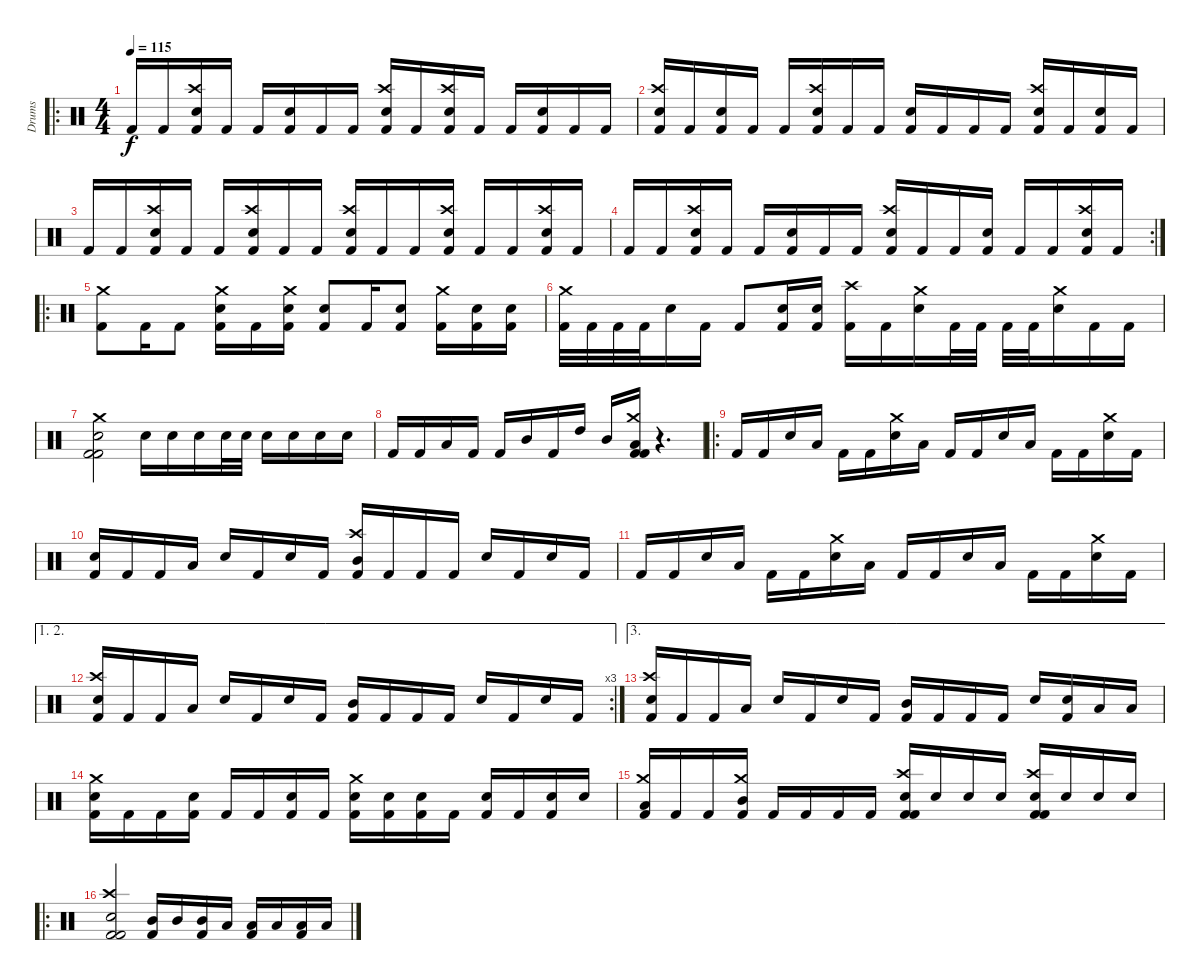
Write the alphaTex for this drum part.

\track ("Drums" "Drums") {instrument percussion}
\staff {score}
\articulation defaults
\ro
\ts (4 4)
\tempo 115
\clef neutral
\ks c "Kick (hit) 2".16{dy f} "Kick (hit) 2".16
("Crash high (hit)" "Electric Snare (hit)" "Kick (hit) 2").16 "Kick (hit) 2".16 "Kick (hit) 2".16 ("Electric Snare (hit)" "Kick (hit) 2").16 "Kick (hit) 2".16 "Kick (hit) 2".16 ("Crash high (hit)" "Electric Snare (hit)" "Kick (hit) 2").16 "Kick (hit) 2".16 ("Crash high (hit)" "Electric Snare (hit)" "Kick (hit) 2").16 "Kick (hit) 2".16 "Kick (hit) 2".16 ("Electric Snare (hit)" "Kick (hit) 2").16 "Kick (hit) 2".16 "Kick (hit) 2".16 |
("Crash high (hit)" "Electric Snare (hit)" "Kick (hit) 2").16 "Kick (hit) 2".16 ("Electric Snare (hit)" "Kick (hit) 2").16 "Kick (hit) 2".16 "Kick (hit) 2".16 ("Crash high (hit)" "Electric Snare (hit)" "Kick (hit) 2").16 "Kick (hit) 2".16 "Kick (hit) 2".16 ("Electric Snare (hit)" "Kick (hit) 2").16 "Kick (hit) 2".16 "Kick (hit) 2".16 "Kick (hit) 2".16 ("Crash high (hit)" "Electric Snare (hit)" "Kick (hit) 2").16 "Kick (hit) 2".16 ("Electric Snare (hit)" "Kick (hit) 2").16 "Kick (hit) 2".16 |
"Kick (hit) 2".16 "Kick (hit) 2".16 ("Crash high (hit)" "Electric Snare (hit)" "Kick (hit) 2").16 "Kick (hit) 2".16 "Kick (hit) 2".16 ("Crash high (hit)" "Electric Snare (hit)" "Kick (hit) 2").16 "Kick (hit) 2".16 "Kick (hit) 2".16 ("Crash high (hit)" "Electric Snare (hit)" "Kick (hit) 2").16 "Kick (hit) 2".16 "Kick (hit) 2".16 ("Crash high (hit)" "Electric Snare (hit)" "Kick (hit) 2").16 "Kick (hit) 2".16 "Kick (hit) 2".16 ("Crash high (hit)" "Electric Snare (hit)" "Kick (hit) 2").16 "Kick (hit) 2".16 |
\rc 2 "Kick (hit) 2".16 "Kick (hit) 2".16
("Crash high (hit)" "Electric Snare (hit)" "Kick (hit) 2").16 "Kick (hit) 2".16 "Kick (hit) 2".16 ("Electric Snare (hit)" "Kick (hit) 2").16 "Kick (hit) 2".16 "Kick (hit) 2".16 ("Crash high (hit)" "Electric Snare (hit)" "Kick (hit) 2").16 "Kick (hit) 2".16 "Kick (hit) 2".16 ("Electric Snare (hit)" "Kick (hit) 2").16 "Kick (hit) 2".16 "Kick (hit) 2".16 ("Crash high (hit)" "Electric Snare (hit)" "Kick (hit) 2").16 "Kick (hit) 2".16 |
\ro
("Crash medium (hit)" "Kick (hit) 2").8 "Kick (hit) 2".16 "Kick (hit) 2".8 ("Crash medium (hit)" "Electric Snare (hit)" "Kick (hit) 2").16 "Kick (hit) 2".16 ("Crash medium (hit)" "Electric Snare (hit)" "Kick (hit) 2").16 ("Electric Snare (hit)" "Kick (hit) 2").8 "Kick (hit) 2".16 ("Electric Snare (hit)" "Kick (hit) 2").8 ("Crash medium (hit)" "Kick (hit) 2").16 ("Electric Snare (hit)" "Kick (hit) 2").16 ("Electric Snare (hit)" "Kick (hit) 2").16 |
("Crash medium (hit)" "Kick (hit) 2").32 "Kick (hit) 2".32 "Kick (hit) 2".32 "Kick (hit) 2".32 "Electric Snare (hit)".16 "Kick (hit) 2".16 "Kick (hit) 2".8 ("Electric Snare (hit)" "Kick (hit) 2").16 ("Electric Snare (hit)" "Kick (hit) 2").16 ("Crash high (hit)" "Kick (hit) 2").16 "Kick (hit) 2".16 ("Crash medium (hit)" "Electric Snare (hit)").16 "Kick (hit) 2".32 "Kick (hit) 2".32 "Kick (hit) 2".32 "Kick (hit) 2".32 ("Crash medium (hit)" "Electric Snare (hit)").16 "Kick (hit) 2".16 "Kick (hit) 2".16 |
("Crash medium (hit)" "Electric Snare (hit)" "Kick (hit) 2" "Kick (hit) 2").2 "Electric Snare (hit)".16 "Electric Snare (hit)".16 "Electric Snare (hit)".16 "Electric Snare (hit)".32 "Electric Snare (hit)".32 "Electric Snare (hit)".16 "Electric Snare (hit)".16 "Electric Snare (hit)".16 "Electric Snare (hit)".16 |
"Kick (hit) 2".16 "Kick (hit) 2".16 "Low Tom (hit)".16 "Kick (hit) 2".16 "Kick (hit) 2".16 "Mid Tom (hit)".16 "Kick (hit) 2".16 "High Tom (hit)".16 "Mid Tom (hit)".16 ("Crash medium (hit)" "Low Tom (hit)" "Kick (hit) 2" "Kick (hit) 2").16 r.4{d} |
\ro "Kick (hit) 2".16 "Kick (hit) 2".16 "Electric Snare (hit)".16 "Low Tom (hit)".16 "Kick (hit) 2".16 "Kick (hit) 2".16
("Crash medium (hit)" "Electric Snare (hit)").16 "Low Tom (hit)".16 "Kick (hit) 2".16 "Kick (hit) 2".16 "Electric Snare (hit)".16 "Low Tom (hit)".16 "Kick (hit) 2".16 "Kick (hit) 2".16 ("Crash medium (hit)" "Electric Snare (hit)").16 "Kick (hit) 2".16 |
("Electric Snare (hit)" "Kick (hit) 2").16 "Kick (hit) 2".16 "Kick (hit) 2".16 "Low Tom (hit)".16 "Electric Snare (hit)".16 "Kick (hit) 2".16 "Electric Snare (hit)".16 "Kick (hit) 2".16 ("Crash high (hit)" "Mid Tom (hit)" "Kick (hit) 2").16 "Kick (hit) 2".16 "Kick (hit) 2".16 "Kick (hit) 2".16 "Electric Snare (hit)".16 "Kick (hit) 2".16 "Electric Snare (hit)".16 "Kick (hit) 2".16 |
"Kick (hit) 2".16 "Kick (hit) 2".16 "Electric Snare (hit)".16 "Low Tom (hit)".16 "Kick (hit) 2".16 "Kick (hit) 2".16 ("Crash medium (hit)" "Electric Snare (hit)").16 "Low Tom (hit)".16 "Kick (hit) 2".16 "Kick (hit) 2".16 "Electric Snare (hit)".16 "Low Tom (hit)".16 "Kick (hit) 2".16 "Kick (hit) 2".16 ("Crash medium (hit)" "Electric Snare (hit)").16 "Kick (hit) 2".16 |
\ae (1 2)
\rc 3
("Crash high (hit)" "Electric Snare (hit)" "Kick (hit) 2").16 "Kick (hit) 2".16 "Kick (hit) 2".16 "Low Tom (hit)".16 "Electric Snare (hit)".16 "Kick (hit) 2".16 "Electric Snare (hit)".16 "Kick (hit) 2".16 ("Mid Tom (hit)" "Kick (hit) 2").16 "Kick (hit) 2".16 "Kick (hit) 2".16 "Kick (hit) 2".16 "Electric Snare (hit)".16 "Kick (hit) 2".16 "Electric Snare (hit)".16 "Kick (hit) 2".16 |
\ae 3
("Crash high (hit)" "Electric Snare (hit)" "Kick (hit) 2").16 "Kick (hit) 2".16 "Kick (hit) 2".16 "Low Tom (hit)".16 "Electric Snare (hit)".16 "Kick (hit) 2".16 "Electric Snare (hit)".16 "Kick (hit) 2".16 ("Mid Tom (hit)" "Kick (hit) 2").16 "Kick (hit) 2".16 "Kick (hit) 2".16 "Kick (hit) 2".16 "Electric Snare (hit)".16 ("Electric Snare (hit)" "Kick (hit) 2").16 "Low Floor Tom (hit)".16 "Low Tom (hit)".16 |
("Crash medium (hit)" "Electric Snare (hit)" "Kick (hit) 2").16 "Kick (hit) 2".16 "Kick (hit) 2".16 ("Electric Snare (hit)" "Kick (hit) 2").16 "Kick (hit) 2".16 "Kick (hit) 2".16 ("Electric Snare (hit)" "Kick (hit) 2").16 "Kick (hit) 2".16 ("Crash medium (hit)" "Electric Snare (hit)" "Kick (hit) 2").16 ("Electric Snare (hit)" "Kick (hit) 2").16 ("Electric Snare (hit)" "Kick (hit) 2").16 "Kick (hit) 2".16 ("Electric Snare (hit)" "Kick (hit) 2").16 "Kick (hit) 2".16 ("Electric Snare (hit)" "Kick (hit) 2").16 "Electric Snare (hit)".16 |
("Crash medium (hit)" "Low Tom (hit)" "Kick (hit) 2").16 "Kick (hit) 2".16 "Kick (hit) 2".16 ("Crash medium (hit)" "Mid Tom (hit)" "Kick (hit) 2").16 "Kick (hit) 2".16 "Kick (hit) 2".16 "Kick (hit) 2".16 "Kick (hit) 2".16 ("Crash high (hit)" "Electric Snare (hit)" "Kick (hit) 2" "Kick (hit) 2").16 "Electric Snare (hit)".16 "Electric Snare (hit)".16 "Electric Snare (hit)".16 ("Crash high (hit)" "Electric Snare (hit)" "Kick (hit) 2" "Kick (hit) 2").16 "Electric Snare (hit)".16 "Electric Snare (hit)".16 "Electric Snare (hit)".16 |
\ro
("Crash high (hit)" "Electric Snare (hit)" "Kick (hit) 2" "Kick (hit) 2").2 ("Mid Tom (hit)" "Kick (hit) 2").16 "Mid Tom (hit)".16 ("Mid Tom (hit)" "Kick (hit) 2").16 "Low Tom (hit)".16 ("Low Tom (hit)" "Kick (hit) 2").16 "Low Tom (hit)".16 ("Low Floor Tom (hit)" "Kick (hit) 2").16 "Low Floor Tom (hit)".16
